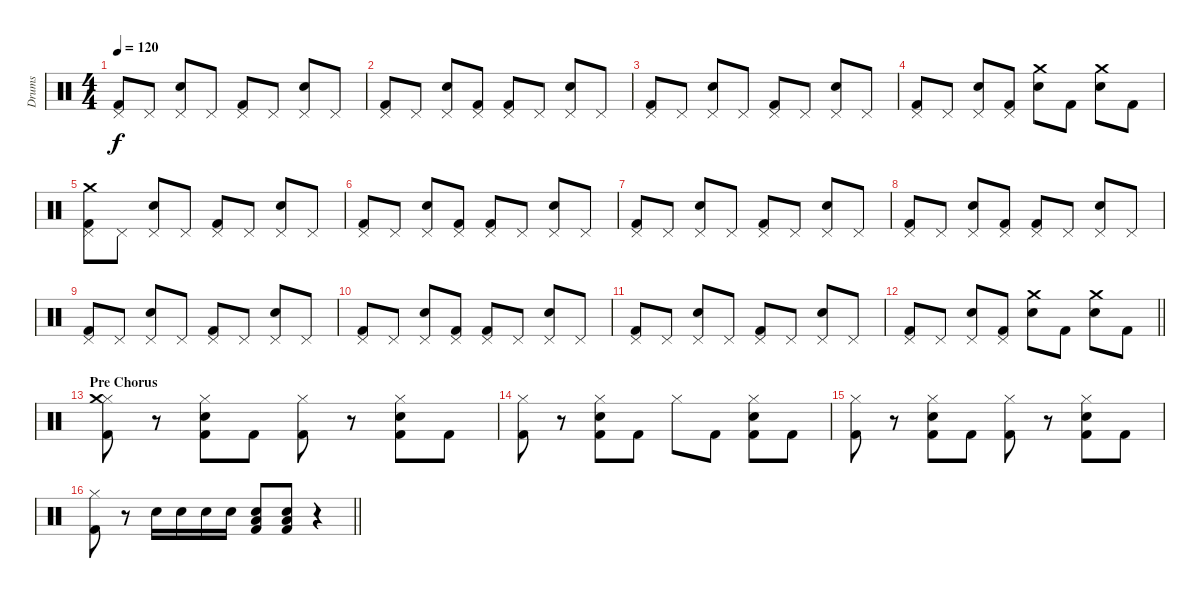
\track ("Drums" "Drums") {instrument percussion}
\staff {score}
\articulation defaults
\ts (4 4)
\tempo 120
\clef neutral
\ks c
("Kick (hit) 2" "Pedal Hi-Hat (hit)").8{dy f} "Pedal Hi-Hat (hit)".8 ("Snare (hit) 2" "Pedal Hi-Hat (hit)").8 "Pedal Hi-Hat (hit)".8 ("Kick (hit) 2" "Pedal Hi-Hat (hit)").8 "Pedal Hi-Hat (hit)".8 ("Snare (hit) 2" "Pedal Hi-Hat (hit)").8 "Pedal Hi-Hat (hit)".8 |
("Kick (hit) 2" "Pedal Hi-Hat (hit)").8 "Pedal Hi-Hat (hit)".8 ("Snare (hit) 2" "Pedal Hi-Hat (hit)").8 ("Kick (hit) 2" "Pedal Hi-Hat (hit)").8 ("Kick (hit) 2" "Pedal Hi-Hat (hit)").8 "Pedal Hi-Hat (hit)".8 ("Snare (hit) 2" "Pedal Hi-Hat (hit)").8 "Pedal Hi-Hat (hit)".8 |
("Kick (hit) 2" "Pedal Hi-Hat (hit)").8 "Pedal Hi-Hat (hit)".8 ("Snare (hit) 2" "Pedal Hi-Hat (hit)").8 "Pedal Hi-Hat (hit)".8 ("Kick (hit) 2" "Pedal Hi-Hat (hit)").8 "Pedal Hi-Hat (hit)".8 ("Snare (hit) 2" "Pedal Hi-Hat (hit)").8 "Pedal Hi-Hat (hit)".8 |
("Kick (hit) 2" "Pedal Hi-Hat (hit)").8 "Pedal Hi-Hat (hit)".8 ("Snare (hit) 2" "Pedal Hi-Hat (hit)").8 ("Pedal Hi-Hat (hit)" "Kick (hit) 2").8 ("Crash medium (hit)" "Snare (hit) 2").8 "Kick (hit) 2".8 ("Snare (hit) 2" "Crash medium (hit)").8 "Kick (hit) 2".8 |
("Kick (hit) 2" "Pedal Hi-Hat (hit)" "Crash medium (hit)").8 "Pedal Hi-Hat (hit)".8 ("Snare (hit) 2" "Pedal Hi-Hat (hit)").8 "Pedal Hi-Hat (hit)".8 ("Kick (hit) 2" "Pedal Hi-Hat (hit)").8 "Pedal Hi-Hat (hit)".8 ("Snare (hit) 2" "Pedal Hi-Hat (hit)").8 "Pedal Hi-Hat (hit)".8 |
("Kick (hit) 2" "Pedal Hi-Hat (hit)").8 "Pedal Hi-Hat (hit)".8 ("Snare (hit) 2" "Pedal Hi-Hat (hit)").8 ("Kick (hit) 2" "Pedal Hi-Hat (hit)").8 ("Kick (hit) 2" "Pedal Hi-Hat (hit)").8 "Pedal Hi-Hat (hit)".8 ("Snare (hit) 2" "Pedal Hi-Hat (hit)").8 "Pedal Hi-Hat (hit)".8 |
("Kick (hit) 2" "Pedal Hi-Hat (hit)").8 "Pedal Hi-Hat (hit)".8 ("Snare (hit) 2" "Pedal Hi-Hat (hit)").8 "Pedal Hi-Hat (hit)".8 ("Kick (hit) 2" "Pedal Hi-Hat (hit)").8 "Pedal Hi-Hat (hit)".8 ("Snare (hit) 2" "Pedal Hi-Hat (hit)").8 "Pedal Hi-Hat (hit)".8 |
("Kick (hit) 2" "Pedal Hi-Hat (hit)").8 "Pedal Hi-Hat (hit)".8 ("Snare (hit) 2" "Pedal Hi-Hat (hit)").8 ("Pedal Hi-Hat (hit)" "Kick (hit) 2").8 ("Kick (hit) 2" "Pedal Hi-Hat (hit)").8 "Pedal Hi-Hat (hit)".8 ("Snare (hit) 2" "Pedal Hi-Hat (hit)").8 "Pedal Hi-Hat (hit)".8 |
("Kick (hit) 2" "Pedal Hi-Hat (hit)").8 "Pedal Hi-Hat (hit)".8 ("Snare (hit) 2" "Pedal Hi-Hat (hit)").8 "Pedal Hi-Hat (hit)".8 ("Kick (hit) 2" "Pedal Hi-Hat (hit)").8 "Pedal Hi-Hat (hit)".8 ("Snare (hit) 2" "Pedal Hi-Hat (hit)").8 "Pedal Hi-Hat (hit)".8 |
("Kick (hit) 2" "Pedal Hi-Hat (hit)").8 "Pedal Hi-Hat (hit)".8 ("Snare (hit) 2" "Pedal Hi-Hat (hit)").8 ("Kick (hit) 2" "Pedal Hi-Hat (hit)").8 ("Kick (hit) 2" "Pedal Hi-Hat (hit)").8 "Pedal Hi-Hat (hit)".8 ("Snare (hit) 2" "Pedal Hi-Hat (hit)").8 "Pedal Hi-Hat (hit)".8 |
("Kick (hit) 2" "Pedal Hi-Hat (hit)").8 "Pedal Hi-Hat (hit)".8 ("Snare (hit) 2" "Pedal Hi-Hat (hit)").8 "Pedal Hi-Hat (hit)".8 ("Kick (hit) 2" "Pedal Hi-Hat (hit)").8 "Pedal Hi-Hat (hit)".8 ("Snare (hit) 2" "Pedal Hi-Hat (hit)").8 "Pedal Hi-Hat (hit)".8 |
\barLineRight lightlight
("Kick (hit) 2" "Pedal Hi-Hat (hit)").8 "Pedal Hi-Hat (hit)".8 ("Snare (hit) 2" "Pedal Hi-Hat (hit)").8 ("Pedal Hi-Hat (hit)" "Kick (hit) 2").8 ("Crash medium (hit)" "Snare (hit) 2").8 "Kick (hit) 2".8 ("Snare (hit) 2" "Crash medium (hit)").8 "Kick (hit) 2".8 |
\section ("" "Pre Chorus")
("Kick (hit) 2" "Hi-Hat (closed)" "Crash medium (hit)").8 r.8 ("Hi-Hat (closed)" "Kick (hit) 2" "Snare (hit) 2").8 "Kick (hit) 2".8 ("Hi-Hat (closed)" "Kick (hit) 2").8 r.8 ("Kick (hit) 2" "Snare (hit) 2" "Hi-Hat (closed)").8 "Kick (hit) 2".8 |
("Hi-Hat (closed)" "Kick (hit) 2").8 r.8 ("Hi-Hat (closed)" "Kick (hit) 2" "Snare (hit) 2").8 "Kick (hit) 2".8 "Hi-Hat (closed)".8 "Kick (hit) 2".8 ("Hi-Hat (closed)" "Snare (hit) 2" "Kick (hit) 2").8 "Kick (hit) 2".8 |
("Kick (hit) 2" "Hi-Hat (closed)").8 r.8 ("Snare (hit) 2" "Kick (hit) 2" "Hi-Hat (closed)").8 "Kick (hit) 2".8 ("Kick (hit) 2" "Hi-Hat (closed)").8 r.8 ("Kick (hit) 2" "Snare (hit) 2" "Hi-Hat (closed)").8 "Kick (hit) 2".8 |
\barLineRight lightlight
("Kick (hit) 2" "Hi-Hat (closed)").8 r.8 "Snare (hit) 2".16 "Snare (hit) 2".16 "Snare (hit) 2".16 "Snare (hit) 2".16 ("Snare (hit) 2" "Kick (hit) 2" "Low Floor Tom (hit)").8 ("Snare (hit) 2" "Low Floor Tom (hit)" "Kick (hit) 2").8 r.4
